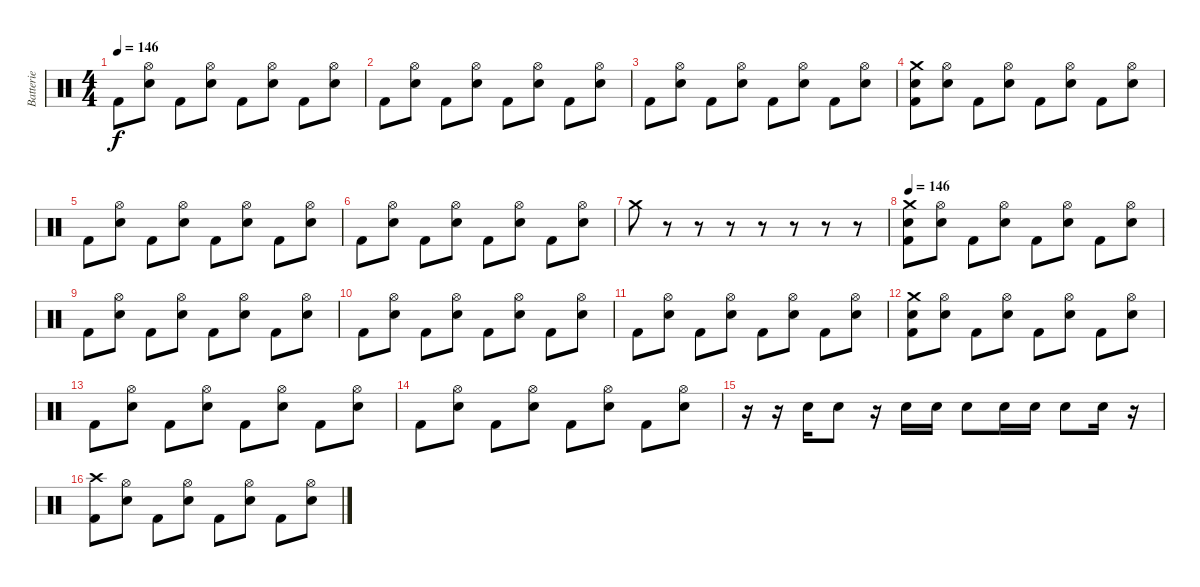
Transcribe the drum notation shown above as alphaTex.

\track ("Batterie" "Batterie") {instrument percussion}
\staff {score}
\articulation defaults
\ts (4 4)
\tempo 146
\clef neutral
\ks c "Kick (hit) 2".8{dy f}
("Electric Snare (hit)" "Hi-Hat (open)").8 "Kick (hit) 2".8 ("Electric Snare (hit)" "Hi-Hat (open)").8 "Kick (hit) 2".8 ("Electric Snare (hit)" "Hi-Hat (open)").8 "Kick (hit) 2".8 ("Electric Snare (hit)" "Hi-Hat (open)").8 |
"Kick (hit) 2".8 ("Electric Snare (hit)" "Hi-Hat (open)").8 "Kick (hit) 2".8 ("Electric Snare (hit)" "Hi-Hat (open)").8 "Kick (hit) 2".8 ("Electric Snare (hit)" "Hi-Hat (open)").8 "Kick (hit) 2".8 ("Electric Snare (hit)" "Hi-Hat (open)").8 |
"Kick (hit) 2".8 ("Electric Snare (hit)" "Hi-Hat (open)").8 "Kick (hit) 2".8 ("Electric Snare (hit)" "Hi-Hat (open)").8 "Kick (hit) 2".8 ("Electric Snare (hit)" "Hi-Hat (open)").8 "Kick (hit) 2".8 ("Electric Snare (hit)" "Hi-Hat (open)").8 |
("Kick (hit) 2" "Electric Snare (hit)" "Crash medium (hit)").8 ("Electric Snare (hit)" "Hi-Hat (open)").8 "Kick (hit) 2".8 ("Electric Snare (hit)" "Hi-Hat (open)").8 "Kick (hit) 2".8 ("Electric Snare (hit)" "Hi-Hat (open)").8 "Kick (hit) 2".8 ("Electric Snare (hit)" "Hi-Hat (open)").8 |
"Kick (hit) 2".8 ("Electric Snare (hit)" "Hi-Hat (open)").8 "Kick (hit) 2".8 ("Electric Snare (hit)" "Hi-Hat (open)").8 "Kick (hit) 2".8 ("Electric Snare (hit)" "Hi-Hat (open)").8 "Kick (hit) 2".8 ("Electric Snare (hit)" "Hi-Hat (open)").8 |
"Kick (hit) 2".8 ("Electric Snare (hit)" "Hi-Hat (open)").8 "Kick (hit) 2".8 ("Electric Snare (hit)" "Hi-Hat (open)").8 "Kick (hit) 2".8 ("Electric Snare (hit)" "Hi-Hat (open)").8 "Kick (hit) 2".8 ("Electric Snare (hit)" "Hi-Hat (open)").8 |
"Crash medium (hit)".8 r.8 r.8 r.8 r.8 r.8 r.8 r.8 |
\tempo 146
("Kick (hit) 2" "Electric Snare (hit)" "Crash medium (hit)").8{volume 13} ("Electric Snare (hit)" "Hi-Hat (open)").8 "Kick (hit) 2".8 ("Electric Snare (hit)" "Hi-Hat (open)").8 "Kick (hit) 2".8 ("Electric Snare (hit)" "Hi-Hat (open)").8 "Kick (hit) 2".8 ("Electric Snare (hit)" "Hi-Hat (open)").8 |
"Kick (hit) 2".8 ("Electric Snare (hit)" "Hi-Hat (open)").8 "Kick (hit) 2".8 ("Electric Snare (hit)" "Hi-Hat (open)").8 "Kick (hit) 2".8 ("Electric Snare (hit)" "Hi-Hat (open)").8 "Kick (hit) 2".8 ("Electric Snare (hit)" "Hi-Hat (open)").8 |
"Kick (hit) 2".8 ("Electric Snare (hit)" "Hi-Hat (open)").8 "Kick (hit) 2".8 ("Electric Snare (hit)" "Hi-Hat (open)").8 "Kick (hit) 2".8 ("Electric Snare (hit)" "Hi-Hat (open)").8 "Kick (hit) 2".8 ("Electric Snare (hit)" "Hi-Hat (open)").8 |
"Kick (hit) 2".8 ("Electric Snare (hit)" "Hi-Hat (open)").8 "Kick (hit) 2".8 ("Electric Snare (hit)" "Hi-Hat (open)").8 "Kick (hit) 2".8 ("Electric Snare (hit)" "Hi-Hat (open)").8 "Kick (hit) 2".8 ("Electric Snare (hit)" "Hi-Hat (open)").8 |
("Kick (hit) 2" "Electric Snare (hit)" "Crash medium (hit)").8 ("Electric Snare (hit)" "Hi-Hat (open)").8 "Kick (hit) 2".8 ("Electric Snare (hit)" "Hi-Hat (open)").8 "Kick (hit) 2".8 ("Electric Snare (hit)" "Hi-Hat (open)").8 "Kick (hit) 2".8 ("Electric Snare (hit)" "Hi-Hat (open)").8 |
"Kick (hit) 2".8 ("Electric Snare (hit)" "Hi-Hat (open)").8 "Kick (hit) 2".8 ("Electric Snare (hit)" "Hi-Hat (open)").8 "Kick (hit) 2".8 ("Electric Snare (hit)" "Hi-Hat (open)").8 "Kick (hit) 2".8 ("Electric Snare (hit)" "Hi-Hat (open)").8 |
"Kick (hit) 2".8 ("Electric Snare (hit)" "Hi-Hat (open)").8 "Kick (hit) 2".8 ("Electric Snare (hit)" "Hi-Hat (open)").8 "Kick (hit) 2".8 ("Electric Snare (hit)" "Hi-Hat (open)").8 "Kick (hit) 2".8 ("Electric Snare (hit)" "Hi-Hat (open)").8 |
r.16 r.16 "Electric Snare (hit)".16 "Electric Snare (hit)".8 r.16 "Electric Snare (hit)".16 "Electric Snare (hit)".16 "Electric Snare (hit)".8 "Electric Snare (hit)".16 "Electric Snare (hit)".16 "Electric Snare (hit)".8 "Electric Snare (hit)".16 r.16 |
("Kick (hit) 2" "Crash high (hit)").8 ("Electric Snare (hit)" "Hi-Hat (open)").8 "Kick (hit) 2".8 ("Electric Snare (hit)" "Hi-Hat (open)").8 "Kick (hit) 2".8 ("Electric Snare (hit)" "Hi-Hat (open)").8 "Kick (hit) 2".8 ("Electric Snare (hit)" "Hi-Hat (open)").8
